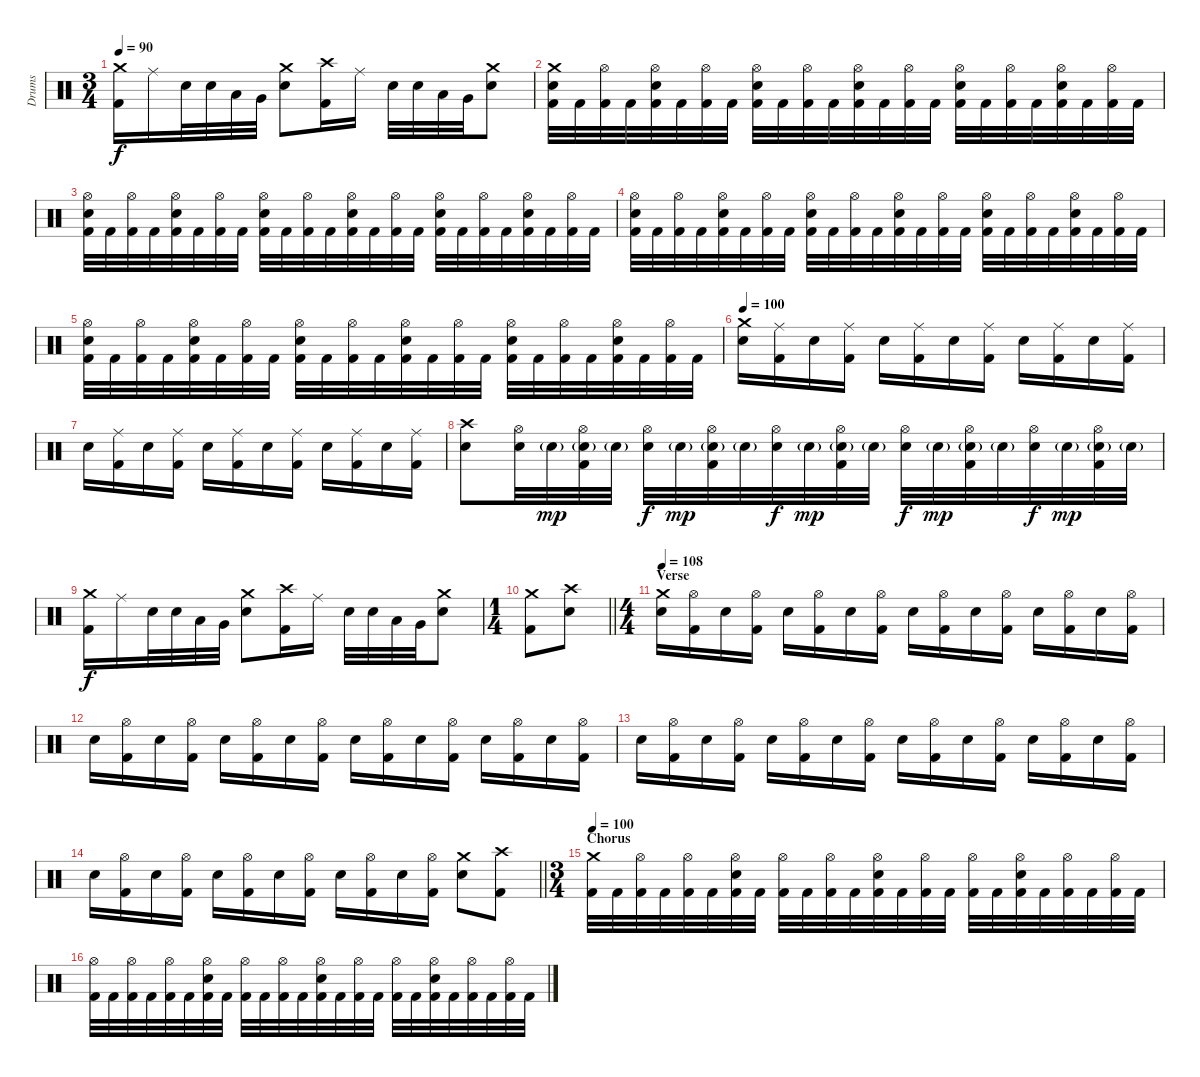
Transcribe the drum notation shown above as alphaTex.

\track ("Drums" "Drums") {instrument percussion}
\staff {score}
\articulation defaults
\ts (3 4)
\tempo 90
\clef neutral
\ks c
("Crash medium (hit)" "Kick (hit) 2").16{dy f} "Ride (middle)".16 "Electric Snare (hit)".32 "Electric Snare (hit)".32 "Low Tom (hit)".32 "Very Low Tom (hit)".32 ("Crash medium (hit)" "Electric Snare (hit)").8 ("Crash high (hit)" "Kick (hit) 2").16 "Ride (middle)".16 "Electric Snare (hit)".32 "Electric Snare (hit)".32 "Low Tom (hit)".32 "Very Low Tom (hit)".32 ("Crash medium (hit)" "Electric Snare (hit)").8 |
("Crash medium (hit)" "Electric Snare (hit)" "Kick (hit) 2").32 "Kick (hit) 2".32 ("Hi-Hat (open)" "Kick (hit) 2").32 "Kick (hit) 2".32 ("Hi-Hat (open)" "Electric Snare (hit)" "Kick (hit) 2").32 "Kick (hit) 2".32 ("Hi-Hat (open)" "Kick (hit) 2").32 "Kick (hit) 2".32 ("Hi-Hat (open)" "Electric Snare (hit)" "Kick (hit) 2").32 "Kick (hit) 2".32 ("Hi-Hat (open)" "Kick (hit) 2").32 "Kick (hit) 2".32 ("Hi-Hat (open)" "Electric Snare (hit)" "Kick (hit) 2").32 "Kick (hit) 2".32 ("Hi-Hat (open)" "Kick (hit) 2").32 "Kick (hit) 2".32 ("Hi-Hat (open)" "Electric Snare (hit)" "Kick (hit) 2").32 "Kick (hit) 2".32 ("Hi-Hat (open)" "Kick (hit) 2").32 "Kick (hit) 2".32 ("Hi-Hat (open)" "Electric Snare (hit)" "Kick (hit) 2").32 "Kick (hit) 2".32 ("Hi-Hat (open)" "Kick (hit) 2").32 "Kick (hit) 2".32 |
("Hi-Hat (open)" "Electric Snare (hit)" "Kick (hit) 2").32 "Kick (hit) 2".32 ("Hi-Hat (open)" "Kick (hit) 2").32 "Kick (hit) 2".32 ("Hi-Hat (open)" "Electric Snare (hit)" "Kick (hit) 2").32 "Kick (hit) 2".32 ("Hi-Hat (open)" "Kick (hit) 2").32 "Kick (hit) 2".32 ("Hi-Hat (open)" "Electric Snare (hit)" "Kick (hit) 2").32 "Kick (hit) 2".32 ("Hi-Hat (open)" "Kick (hit) 2").32 "Kick (hit) 2".32 ("Hi-Hat (open)" "Electric Snare (hit)" "Kick (hit) 2").32 "Kick (hit) 2".32 ("Hi-Hat (open)" "Kick (hit) 2").32 "Kick (hit) 2".32 ("Hi-Hat (open)" "Electric Snare (hit)" "Kick (hit) 2").32 "Kick (hit) 2".32 ("Hi-Hat (open)" "Kick (hit) 2").32 "Kick (hit) 2".32 ("Hi-Hat (open)" "Electric Snare (hit)" "Kick (hit) 2").32 "Kick (hit) 2".32 ("Hi-Hat (open)" "Kick (hit) 2").32 "Kick (hit) 2".32 |
("Hi-Hat (open)" "Electric Snare (hit)" "Kick (hit) 2").32 "Kick (hit) 2".32 ("Hi-Hat (open)" "Kick (hit) 2").32 "Kick (hit) 2".32 ("Hi-Hat (open)" "Electric Snare (hit)" "Kick (hit) 2").32 "Kick (hit) 2".32 ("Hi-Hat (open)" "Kick (hit) 2").32 "Kick (hit) 2".32 ("Hi-Hat (open)" "Electric Snare (hit)" "Kick (hit) 2").32 "Kick (hit) 2".32 ("Hi-Hat (open)" "Kick (hit) 2").32 "Kick (hit) 2".32 ("Hi-Hat (open)" "Electric Snare (hit)" "Kick (hit) 2").32 "Kick (hit) 2".32 ("Hi-Hat (open)" "Kick (hit) 2").32 "Kick (hit) 2".32 ("Hi-Hat (open)" "Electric Snare (hit)" "Kick (hit) 2").32 "Kick (hit) 2".32 ("Hi-Hat (open)" "Kick (hit) 2").32 "Kick (hit) 2".32 ("Hi-Hat (open)" "Electric Snare (hit)" "Kick (hit) 2").32 "Kick (hit) 2".32 ("Hi-Hat (open)" "Kick (hit) 2").32 "Kick (hit) 2".32 |
("Hi-Hat (open)" "Electric Snare (hit)" "Kick (hit) 2").32 "Kick (hit) 2".32 ("Hi-Hat (open)" "Kick (hit) 2").32 "Kick (hit) 2".32 ("Hi-Hat (open)" "Electric Snare (hit)" "Kick (hit) 2").32 "Kick (hit) 2".32 ("Hi-Hat (open)" "Kick (hit) 2").32 "Kick (hit) 2".32 ("Hi-Hat (open)" "Electric Snare (hit)" "Kick (hit) 2").32 "Kick (hit) 2".32 ("Hi-Hat (open)" "Kick (hit) 2").32 "Kick (hit) 2".32 ("Hi-Hat (open)" "Electric Snare (hit)" "Kick (hit) 2").32 "Kick (hit) 2".32 ("Hi-Hat (open)" "Kick (hit) 2").32 "Kick (hit) 2".32 ("Hi-Hat (open)" "Electric Snare (hit)" "Kick (hit) 2").32 "Kick (hit) 2".32 ("Hi-Hat (open)" "Kick (hit) 2").32 "Kick (hit) 2".32 ("Hi-Hat (open)" "Electric Snare (hit)" "Kick (hit) 2").32 "Kick (hit) 2".32 ("Hi-Hat (open)" "Kick (hit) 2").32 "Kick (hit) 2".32 |
\tempo 100
("Crash medium (hit)" "Electric Snare (hit)").16 ("Ride (middle)" "Kick (hit) 2").16 "Electric Snare (hit)".16 ("Ride (middle)" "Kick (hit) 2").16 "Electric Snare (hit)".16 ("Ride (middle)" "Kick (hit) 2").16 "Electric Snare (hit)".16 ("Ride (middle)" "Kick (hit) 2").16 "Electric Snare (hit)".16 ("Ride (middle)" "Kick (hit) 2").16 "Electric Snare (hit)".16 ("Ride (middle)" "Kick (hit) 2").16 |
"Electric Snare (hit)".16 ("Ride (middle)" "Kick (hit) 2").16 "Electric Snare (hit)".16 ("Ride (middle)" "Kick (hit) 2").16 "Electric Snare (hit)".16 ("Ride (middle)" "Kick (hit) 2").16 "Electric Snare (hit)".16 ("Ride (middle)" "Kick (hit) 2").16 "Electric Snare (hit)".16 ("Ride (middle)" "Kick (hit) 2").16 "Electric Snare (hit)".16 ("Ride (middle)" "Kick (hit) 2").16 |
("Crash high (hit)" "Electric Snare (hit)").8 ("Hi-Hat (open)" "Electric Snare (hit)").32 "Electric Snare (hit)"{g}.32{dy mp} ("Hi-Hat (open)" "Electric Snare (hit)"{g} "Kick (hit) 2").32 "Electric Snare (hit)"{g}.32 ("Hi-Hat (open)" "Electric Snare (hit)").32{dy f} "Electric Snare (hit)"{g}.32{dy mp} ("Hi-Hat (open)" "Electric Snare (hit)"{g} "Kick (hit) 2").32 "Electric Snare (hit)"{g}.32 ("Hi-Hat (open)" "Electric Snare (hit)").32{dy f} "Electric Snare (hit)"{g}.32{dy mp} ("Hi-Hat (open)" "Electric Snare (hit)"{g} "Kick (hit) 2").32 "Electric Snare (hit)"{g}.32 ("Hi-Hat (open)" "Electric Snare (hit)").32{dy f} "Electric Snare (hit)"{g}.32{dy mp} ("Hi-Hat (open)" "Electric Snare (hit)"{g} "Kick (hit) 2").32 "Electric Snare (hit)"{g}.32 ("Hi-Hat (open)" "Electric Snare (hit)").32{dy f} "Electric Snare (hit)"{g}.32{dy mp} ("Hi-Hat (open)" "Electric Snare (hit)"{g} "Kick (hit) 2").32 "Electric Snare (hit)"{g}.32 |
("Crash medium (hit)" "Kick (hit) 2").16{dy f} "Ride (middle)".16 "Electric Snare (hit)".32 "Electric Snare (hit)".32 "Low Tom (hit)".32 "Very Low Tom (hit)".32 ("Crash medium (hit)" "Electric Snare (hit)").8 ("Crash high (hit)" "Kick (hit) 2").16 "Ride (middle)".16 "Electric Snare (hit)".32 "Electric Snare (hit)".32 "Low Tom (hit)".32 "Very Low Tom (hit)".32 ("Crash medium (hit)" "Electric Snare (hit)").8 |
\ts (1 4)
\barLineRight lightlight
("Crash medium (hit)" "Kick (hit) 2").8 ("Crash high (hit)" "Electric Snare (hit)").8 |
\ts (4 4)
\section ("" "Verse")
\tempo 108
("Crash medium (hit)" "Electric Snare (hit)").16 ("Hi-Hat (open)" "Kick (hit) 2").16 "Electric Snare (hit)".16 ("Hi-Hat (open)" "Kick (hit) 2").16 "Electric Snare (hit)".16 ("Hi-Hat (open)" "Kick (hit) 2").16 "Electric Snare (hit)".16 ("Hi-Hat (open)" "Kick (hit) 2").16 "Electric Snare (hit)".16 ("Hi-Hat (open)" "Kick (hit) 2").16 "Electric Snare (hit)".16 ("Hi-Hat (open)" "Kick (hit) 2").16 "Electric Snare (hit)".16 ("Hi-Hat (open)" "Kick (hit) 2").16 "Electric Snare (hit)".16 ("Hi-Hat (open)" "Kick (hit) 2").16 |
"Electric Snare (hit)".16 ("Hi-Hat (open)" "Kick (hit) 2").16 "Electric Snare (hit)".16 ("Hi-Hat (open)" "Kick (hit) 2").16 "Electric Snare (hit)".16 ("Hi-Hat (open)" "Kick (hit) 2").16 "Electric Snare (hit)".16 ("Hi-Hat (open)" "Kick (hit) 2").16 "Electric Snare (hit)".16 ("Hi-Hat (open)" "Kick (hit) 2").16 "Electric Snare (hit)".16 ("Hi-Hat (open)" "Kick (hit) 2").16 "Electric Snare (hit)".16 ("Hi-Hat (open)" "Kick (hit) 2").16 "Electric Snare (hit)".16 ("Hi-Hat (open)" "Kick (hit) 2").16 |
"Electric Snare (hit)".16 ("Hi-Hat (open)" "Kick (hit) 2").16 "Electric Snare (hit)".16 ("Hi-Hat (open)" "Kick (hit) 2").16 "Electric Snare (hit)".16 ("Hi-Hat (open)" "Kick (hit) 2").16 "Electric Snare (hit)".16 ("Hi-Hat (open)" "Kick (hit) 2").16 "Electric Snare (hit)".16 ("Hi-Hat (open)" "Kick (hit) 2").16 "Electric Snare (hit)".16 ("Hi-Hat (open)" "Kick (hit) 2").16 "Electric Snare (hit)".16 ("Hi-Hat (open)" "Kick (hit) 2").16 "Electric Snare (hit)".16 ("Hi-Hat (open)" "Kick (hit) 2").16 |
\barLineRight lightlight "Electric Snare (hit)".16
("Hi-Hat (open)" "Kick (hit) 2").16 "Electric Snare (hit)".16 ("Hi-Hat (open)" "Kick (hit) 2").16 "Electric Snare (hit)".16 ("Hi-Hat (open)" "Kick (hit) 2").16 "Electric Snare (hit)".16 ("Hi-Hat (open)" "Kick (hit) 2").16 "Electric Snare (hit)".16 ("Hi-Hat (open)" "Kick (hit) 2").16 "Electric Snare (hit)".16 ("Hi-Hat (open)" "Kick (hit) 2").16 ("Crash medium (hit)" "Electric Snare (hit)").8 ("Crash high (hit)" "Kick (hit) 2").8 |
\ts (3 4)
\section ("" "Chorus")
\tempo 100
("Crash medium (hit)" "Kick (hit) 2").32 "Kick (hit) 2".32 ("Hi-Hat (open)" "Kick (hit) 2").32 "Kick (hit) 2".32 ("Hi-Hat (open)" "Kick (hit) 2").32 "Kick (hit) 2".32 ("Hi-Hat (open)" "Electric Snare (hit)" "Kick (hit) 2").32 "Kick (hit) 2".32 ("Hi-Hat (open)" "Kick (hit) 2").32 "Kick (hit) 2".32 ("Hi-Hat (open)" "Kick (hit) 2").32 "Kick (hit) 2".32 ("Hi-Hat (open)" "Electric Snare (hit)" "Kick (hit) 2").32 "Kick (hit) 2".32 ("Hi-Hat (open)" "Kick (hit) 2").32 "Kick (hit) 2".32 ("Hi-Hat (open)" "Kick (hit) 2").32 "Kick (hit) 2".32 ("Hi-Hat (open)" "Electric Snare (hit)" "Kick (hit) 2").32 "Kick (hit) 2".32 ("Hi-Hat (open)" "Kick (hit) 2").32 "Kick (hit) 2".32 ("Hi-Hat (open)" "Kick (hit) 2").32 "Kick (hit) 2".32 |
("Hi-Hat (open)" "Kick (hit) 2").32 "Kick (hit) 2".32 ("Hi-Hat (open)" "Kick (hit) 2").32 "Kick (hit) 2".32 ("Hi-Hat (open)" "Kick (hit) 2").32 "Kick (hit) 2".32 ("Hi-Hat (open)" "Electric Snare (hit)" "Kick (hit) 2").32 "Kick (hit) 2".32 ("Hi-Hat (open)" "Kick (hit) 2").32 "Kick (hit) 2".32 ("Hi-Hat (open)" "Kick (hit) 2").32 "Kick (hit) 2".32 ("Hi-Hat (open)" "Electric Snare (hit)" "Kick (hit) 2").32 "Kick (hit) 2".32 ("Hi-Hat (open)" "Kick (hit) 2").32 "Kick (hit) 2".32 ("Hi-Hat (open)" "Kick (hit) 2").32 "Kick (hit) 2".32 ("Hi-Hat (open)" "Electric Snare (hit)" "Kick (hit) 2").32 "Kick (hit) 2".32 ("Hi-Hat (open)" "Kick (hit) 2").32 "Kick (hit) 2".32 ("Hi-Hat (open)" "Kick (hit) 2").32 "Kick (hit) 2".32
